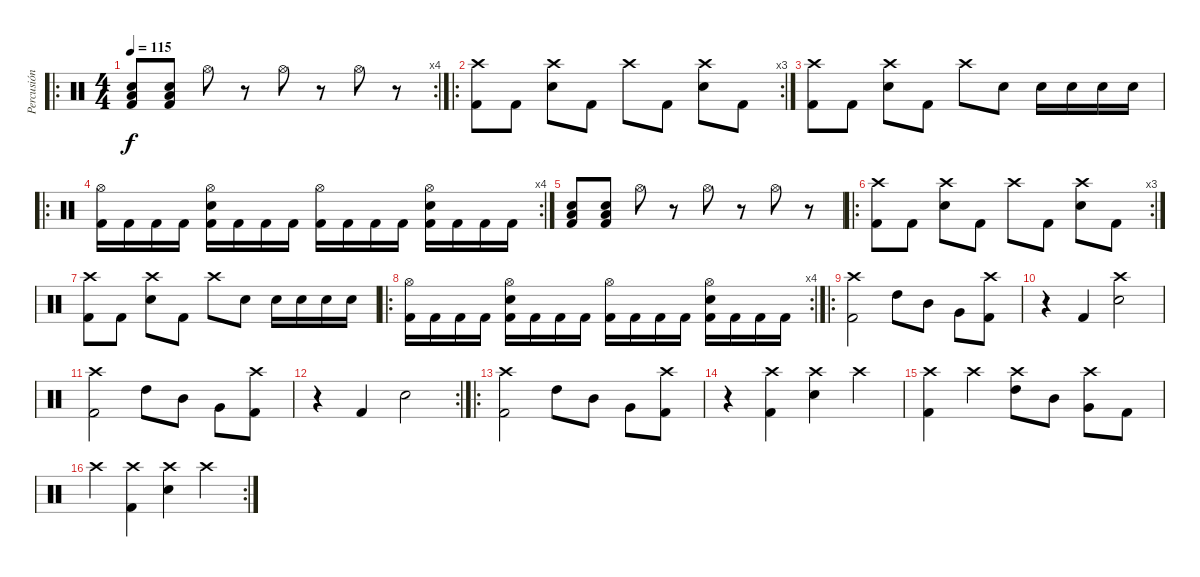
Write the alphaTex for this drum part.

\track ("Percusión" "Percusión") {instrument percussion}
\staff {score}
\articulation defaults
\ro
\rc 4
\ts (4 4)
\tempo 115
\clef neutral
\ks c
("Electric Snare (hit)" "Low Tom (hit)" "Kick (hit) 2").8{dy f} ("Electric Snare (hit)" "Low Tom (hit)" "Kick (hit) 2").8 "Hi-Hat (open)".8 r.8 "Hi-Hat (open)".8 r.8 "Hi-Hat (open)".8 r.8 |
\ro
\rc 3
("Crash high (hit)" "Kick (hit) 2").8 "Kick (hit) 2".8 ("Crash high (hit)" "Electric Snare (hit)").8 "Kick (hit) 2".8 "Crash high (hit)".8 "Kick (hit) 2".8 ("Crash high (hit)" "Electric Snare (hit)").8 "Kick (hit) 2".8 |
("Crash high (hit)" "Kick (hit) 2").8 "Kick (hit) 2".8 ("Crash high (hit)" "Electric Snare (hit)").8 "Kick (hit) 2".8 "Crash high (hit)".8 "Electric Snare (hit)".8 "Electric Snare (hit)".16 "Electric Snare (hit)".16 "Electric Snare (hit)".16 "Electric Snare (hit)".16 |
\ro
\rc 4
("Hi-Hat (open)" "Kick (hit) 2").16 "Kick (hit) 2".16 "Kick (hit) 2".16 "Kick (hit) 2".16 ("Hi-Hat (open)" "Electric Snare (hit)" "Kick (hit) 2").16 "Kick (hit) 2".16 "Kick (hit) 2".16 "Kick (hit) 2".16 ("Hi-Hat (open)" "Kick (hit) 2").16 "Kick (hit) 2".16 "Kick (hit) 2".16 "Kick (hit) 2".16 ("Hi-Hat (open)" "Electric Snare (hit)" "Kick (hit) 2").16 "Kick (hit) 2".16 "Kick (hit) 2".16 "Kick (hit) 2".16 |
("Electric Snare (hit)" "Low Tom (hit)" "Kick (hit) 2").8 ("Electric Snare (hit)" "Low Tom (hit)" "Kick (hit) 2").8 "Hi-Hat (open)".8 r.8 "Hi-Hat (open)".8 r.8 "Hi-Hat (open)".8 r.8 |
\ro
\rc 3
("Crash high (hit)" "Kick (hit) 2").8 "Kick (hit) 2".8 ("Crash high (hit)" "Electric Snare (hit)").8 "Kick (hit) 2".8 "Crash high (hit)".8 "Kick (hit) 2".8 ("Crash high (hit)" "Electric Snare (hit)").8 "Kick (hit) 2".8 |
("Crash high (hit)" "Kick (hit) 2").8 "Kick (hit) 2".8 ("Crash high (hit)" "Electric Snare (hit)").8 "Kick (hit) 2".8 "Crash high (hit)".8 "Electric Snare (hit)".8 "Electric Snare (hit)".16 "Electric Snare (hit)".16 "Electric Snare (hit)".16 "Electric Snare (hit)".16 |
\ro
\rc 4
("Hi-Hat (open)" "Kick (hit) 2").16 "Kick (hit) 2".16 "Kick (hit) 2".16 "Kick (hit) 2".16 ("Hi-Hat (open)" "Electric Snare (hit)" "Kick (hit) 2").16 "Kick (hit) 2".16 "Kick (hit) 2".16 "Kick (hit) 2".16 ("Hi-Hat (open)" "Kick (hit) 2").16 "Kick (hit) 2".16 "Kick (hit) 2".16 "Kick (hit) 2".16 ("Hi-Hat (open)" "Electric Snare (hit)" "Kick (hit) 2").16 "Kick (hit) 2".16 "Kick (hit) 2".16 "Kick (hit) 2".16 |
\ro
("Crash high (hit)" "Kick (hit) 2").2 "High Tom (hit)".8 "Mid Tom (hit)".8 "Very Low Tom (hit)".8 ("Crash high (hit)" "Kick (hit) 2").8 |
r.4 "Kick (hit) 2".4 ("Crash high (hit)" "Electric Snare (hit)").2 |
("Crash high (hit)" "Kick (hit) 2").2 "High Tom (hit)".8 "Mid Tom (hit)".8 "Very Low Tom (hit)".8 ("Crash high (hit)" "Kick (hit) 2").8 |
\rc 2
r.4 "Kick (hit) 2".4 "Electric Snare (hit)".2 |
\ro
("Crash high (hit)" "Kick (hit) 2").2 "High Tom (hit)".8 "Mid Tom (hit)".8 "Very Low Tom (hit)".8 ("Crash high (hit)" "Kick (hit) 2").8 |
r.4 ("Crash high (hit)" "Kick (hit) 2").4 ("Crash high (hit)" "Electric Snare (hit)").4 "Crash high (hit)".4 |
("Crash high (hit)" "Kick (hit) 2").4 "Crash high (hit)".4 ("Crash high (hit)" "High Tom (hit)").8 "Mid Tom (hit)".8 ("Crash high (hit)" "Very Low Tom (hit)").8 "Kick (hit) 2".8 |
\rc 2 "Crash high (hit)".4
("Crash high (hit)" "Kick (hit) 2").4 ("Crash high (hit)" "Electric Snare (hit)").4 "Crash high (hit)".4
